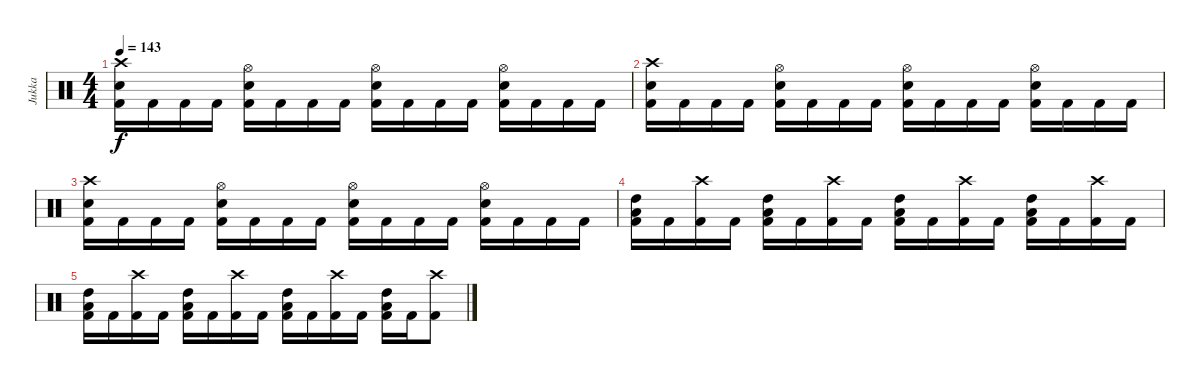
\track ("Jukka" "Jukka") {instrument percussion}
\staff {score}
\articulation defaults
\ts (4 4)
\tempo 143
\clef neutral
\ks c
("Crash high (hit)" "Electric Snare (hit)" "Kick (hit) 2").16{dy f} "Kick (hit) 2".16 "Kick (hit) 2".16 "Kick (hit) 2".16 ("Hi-Hat (open)" "Electric Snare (hit)" "Kick (hit) 2").16 "Kick (hit) 2".16 "Kick (hit) 2".16 "Kick (hit) 2".16 ("Hi-Hat (open)" "Electric Snare (hit)" "Kick (hit) 2").16 "Kick (hit) 2".16 "Kick (hit) 2".16 "Kick (hit) 2".16 ("Hi-Hat (open)" "Electric Snare (hit)" "Kick (hit) 2").16 "Kick (hit) 2".16 "Kick (hit) 2".16 "Kick (hit) 2".16 |
("Crash high (hit)" "Electric Snare (hit)" "Kick (hit) 2").16 "Kick (hit) 2".16 "Kick (hit) 2".16 "Kick (hit) 2".16 ("Hi-Hat (open)" "Electric Snare (hit)" "Kick (hit) 2").16 "Kick (hit) 2".16 "Kick (hit) 2".16 "Kick (hit) 2".16 ("Hi-Hat (open)" "Electric Snare (hit)" "Kick (hit) 2").16 "Kick (hit) 2".16 "Kick (hit) 2".16 "Kick (hit) 2".16 ("Hi-Hat (open)" "Electric Snare (hit)" "Kick (hit) 2").16 "Kick (hit) 2".16 "Kick (hit) 2".16 "Kick (hit) 2".16 |
("Crash high (hit)" "Electric Snare (hit)" "Kick (hit) 2").16 "Kick (hit) 2".16 "Kick (hit) 2".16 "Kick (hit) 2".16 ("Hi-Hat (open)" "Electric Snare (hit)" "Kick (hit) 2").16 "Kick (hit) 2".16 "Kick (hit) 2".16 "Kick (hit) 2".16 ("Hi-Hat (open)" "Electric Snare (hit)" "Kick (hit) 2").16 "Kick (hit) 2".16 "Kick (hit) 2".16 "Kick (hit) 2".16 ("Hi-Hat (open)" "Electric Snare (hit)" "Kick (hit) 2").16 "Kick (hit) 2".16 "Kick (hit) 2".16 "Kick (hit) 2".16 |
("High Tom (hit)" "Low Tom (hit)" "Kick (hit) 2").16 "Kick (hit) 2".16 ("Crash high (hit)" "Kick (hit) 2").16 "Kick (hit) 2".16 ("High Tom (hit)" "Low Tom (hit)" "Kick (hit) 2").16 "Kick (hit) 2".16 ("Crash high (hit)" "Kick (hit) 2").16 "Kick (hit) 2".16 ("High Tom (hit)" "Low Tom (hit)" "Kick (hit) 2").16 "Kick (hit) 2".16 ("Crash high (hit)" "Kick (hit) 2").16 "Kick (hit) 2".16 ("High Tom (hit)" "Low Tom (hit)" "Kick (hit) 2").16 "Kick (hit) 2".16 ("Crash high (hit)" "Kick (hit) 2").16 "Kick (hit) 2".16 |
("High Tom (hit)" "Low Tom (hit)" "Kick (hit) 2").16 "Kick (hit) 2".16 ("Crash high (hit)" "Kick (hit) 2").16 "Kick (hit) 2".16 ("High Tom (hit)" "Low Tom (hit)" "Kick (hit) 2").16 "Kick (hit) 2".16 ("Crash high (hit)" "Kick (hit) 2").16 "Kick (hit) 2".16 ("High Tom (hit)" "Low Tom (hit)" "Kick (hit) 2").16 "Kick (hit) 2".16 ("Crash high (hit)" "Kick (hit) 2").16 "Kick (hit) 2".16 ("High Tom (hit)" "Low Tom (hit)" "Kick (hit) 2").16 "Kick (hit) 2".16 ("Crash high (hit)" "Kick (hit) 2").8
